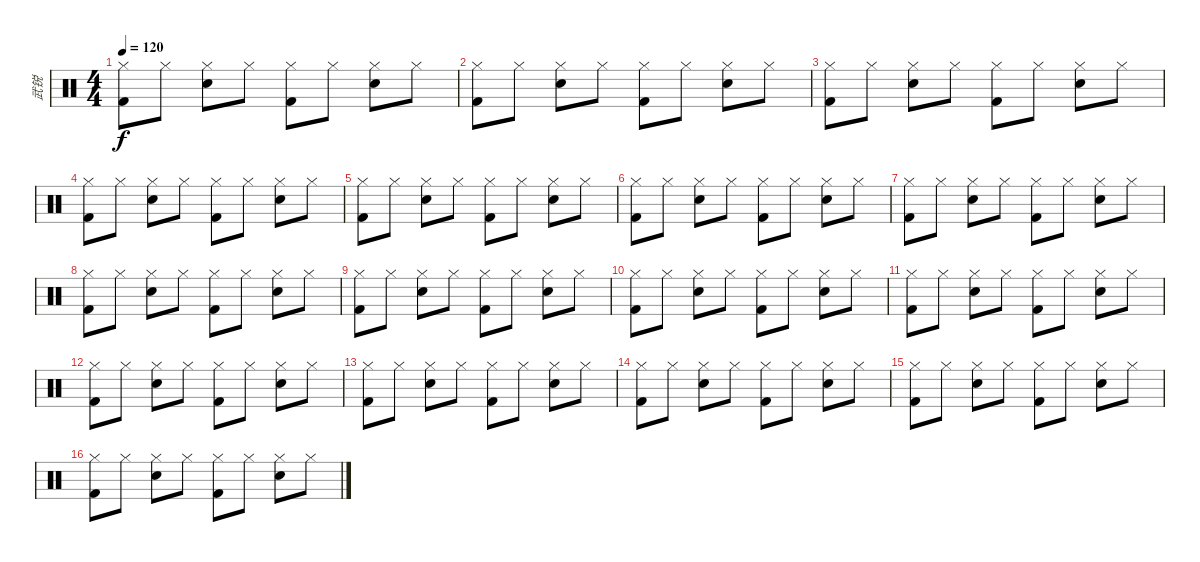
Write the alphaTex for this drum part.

\track ("武锐" "武锐") {instrument percussion}
\staff {score}
\articulation defaults
\ts (4 4)
\tempo 120
\clef neutral
\ks c
("Hi-Hat (closed)" "Kick (hit) 2").8{dy f} "Hi-Hat (closed)".8 ("Hi-Hat (closed)" "Snare (hit) 2").8 "Hi-Hat (closed)".8 ("Hi-Hat (closed)" "Kick (hit) 2").8 "Hi-Hat (closed)".8 ("Hi-Hat (closed)" "Snare (hit) 2").8 "Hi-Hat (closed)".8 |
("Hi-Hat (closed)" "Kick (hit) 2").8 "Hi-Hat (closed)".8 ("Hi-Hat (closed)" "Snare (hit) 2").8 "Hi-Hat (closed)".8 ("Hi-Hat (closed)" "Kick (hit) 2").8 "Hi-Hat (closed)".8 ("Hi-Hat (closed)" "Snare (hit) 2").8 "Hi-Hat (closed)".8 |
("Hi-Hat (closed)" "Kick (hit) 2").8 "Hi-Hat (closed)".8 ("Hi-Hat (closed)" "Snare (hit) 2").8 "Hi-Hat (closed)".8 ("Hi-Hat (closed)" "Kick (hit) 2").8 "Hi-Hat (closed)".8 ("Hi-Hat (closed)" "Snare (hit) 2").8 "Hi-Hat (closed)".8 |
("Hi-Hat (closed)" "Kick (hit) 2").8 "Hi-Hat (closed)".8 ("Hi-Hat (closed)" "Snare (hit) 2").8 "Hi-Hat (closed)".8 ("Hi-Hat (closed)" "Kick (hit) 2").8 "Hi-Hat (closed)".8 ("Hi-Hat (closed)" "Snare (hit) 2").8 "Hi-Hat (closed)".8 |
("Hi-Hat (closed)" "Kick (hit) 2").8 "Hi-Hat (closed)".8 ("Hi-Hat (closed)" "Snare (hit) 2").8 "Hi-Hat (closed)".8 ("Hi-Hat (closed)" "Kick (hit) 2").8 "Hi-Hat (closed)".8 ("Hi-Hat (closed)" "Snare (hit) 2").8 "Hi-Hat (closed)".8 |
("Hi-Hat (closed)" "Kick (hit) 2").8 "Hi-Hat (closed)".8 ("Hi-Hat (closed)" "Snare (hit) 2").8 "Hi-Hat (closed)".8 ("Hi-Hat (closed)" "Kick (hit) 2").8 "Hi-Hat (closed)".8 ("Hi-Hat (closed)" "Snare (hit) 2").8 "Hi-Hat (closed)".8 |
("Hi-Hat (closed)" "Kick (hit) 2").8 "Hi-Hat (closed)".8 ("Hi-Hat (closed)" "Snare (hit) 2").8 "Hi-Hat (closed)".8 ("Hi-Hat (closed)" "Kick (hit) 2").8 "Hi-Hat (closed)".8 ("Hi-Hat (closed)" "Snare (hit) 2").8 "Hi-Hat (closed)".8 |
("Hi-Hat (closed)" "Kick (hit) 2").8 "Hi-Hat (closed)".8 ("Hi-Hat (closed)" "Snare (hit) 2").8 "Hi-Hat (closed)".8 ("Hi-Hat (closed)" "Kick (hit) 2").8 "Hi-Hat (closed)".8 ("Hi-Hat (closed)" "Snare (hit) 2").8 "Hi-Hat (closed)".8 |
("Hi-Hat (closed)" "Kick (hit) 2").8 "Hi-Hat (closed)".8 ("Hi-Hat (closed)" "Snare (hit) 2").8 "Hi-Hat (closed)".8 ("Hi-Hat (closed)" "Kick (hit) 2").8 "Hi-Hat (closed)".8 ("Hi-Hat (closed)" "Snare (hit) 2").8 "Hi-Hat (closed)".8 |
("Hi-Hat (closed)" "Kick (hit) 2").8 "Hi-Hat (closed)".8 ("Hi-Hat (closed)" "Snare (hit) 2").8 "Hi-Hat (closed)".8 ("Hi-Hat (closed)" "Kick (hit) 2").8 "Hi-Hat (closed)".8 ("Hi-Hat (closed)" "Snare (hit) 2").8 "Hi-Hat (closed)".8 |
("Hi-Hat (closed)" "Kick (hit) 2").8 "Hi-Hat (closed)".8 ("Hi-Hat (closed)" "Snare (hit) 2").8 "Hi-Hat (closed)".8 ("Hi-Hat (closed)" "Kick (hit) 2").8 "Hi-Hat (closed)".8 ("Hi-Hat (closed)" "Snare (hit) 2").8 "Hi-Hat (closed)".8 |
("Hi-Hat (closed)" "Kick (hit) 2").8 "Hi-Hat (closed)".8 ("Hi-Hat (closed)" "Snare (hit) 2").8 "Hi-Hat (closed)".8 ("Hi-Hat (closed)" "Kick (hit) 2").8 "Hi-Hat (closed)".8 ("Hi-Hat (closed)" "Snare (hit) 2").8 "Hi-Hat (closed)".8 |
("Hi-Hat (closed)" "Kick (hit) 2").8 "Hi-Hat (closed)".8 ("Hi-Hat (closed)" "Snare (hit) 2").8 "Hi-Hat (closed)".8 ("Hi-Hat (closed)" "Kick (hit) 2").8 "Hi-Hat (closed)".8 ("Hi-Hat (closed)" "Snare (hit) 2").8 "Hi-Hat (closed)".8 |
("Hi-Hat (closed)" "Kick (hit) 2").8 "Hi-Hat (closed)".8 ("Hi-Hat (closed)" "Snare (hit) 2").8 "Hi-Hat (closed)".8 ("Hi-Hat (closed)" "Kick (hit) 2").8 "Hi-Hat (closed)".8 ("Hi-Hat (closed)" "Snare (hit) 2").8 "Hi-Hat (closed)".8 |
("Hi-Hat (closed)" "Kick (hit) 2").8 "Hi-Hat (closed)".8 ("Hi-Hat (closed)" "Snare (hit) 2").8 "Hi-Hat (closed)".8 ("Hi-Hat (closed)" "Kick (hit) 2").8 "Hi-Hat (closed)".8 ("Hi-Hat (closed)" "Snare (hit) 2").8 "Hi-Hat (closed)".8 |
("Hi-Hat (closed)" "Kick (hit) 2").8 "Hi-Hat (closed)".8 ("Hi-Hat (closed)" "Snare (hit) 2").8 "Hi-Hat (closed)".8 ("Hi-Hat (closed)" "Kick (hit) 2").8 "Hi-Hat (closed)".8 ("Hi-Hat (closed)" "Snare (hit) 2").8 "Hi-Hat (closed)".8
